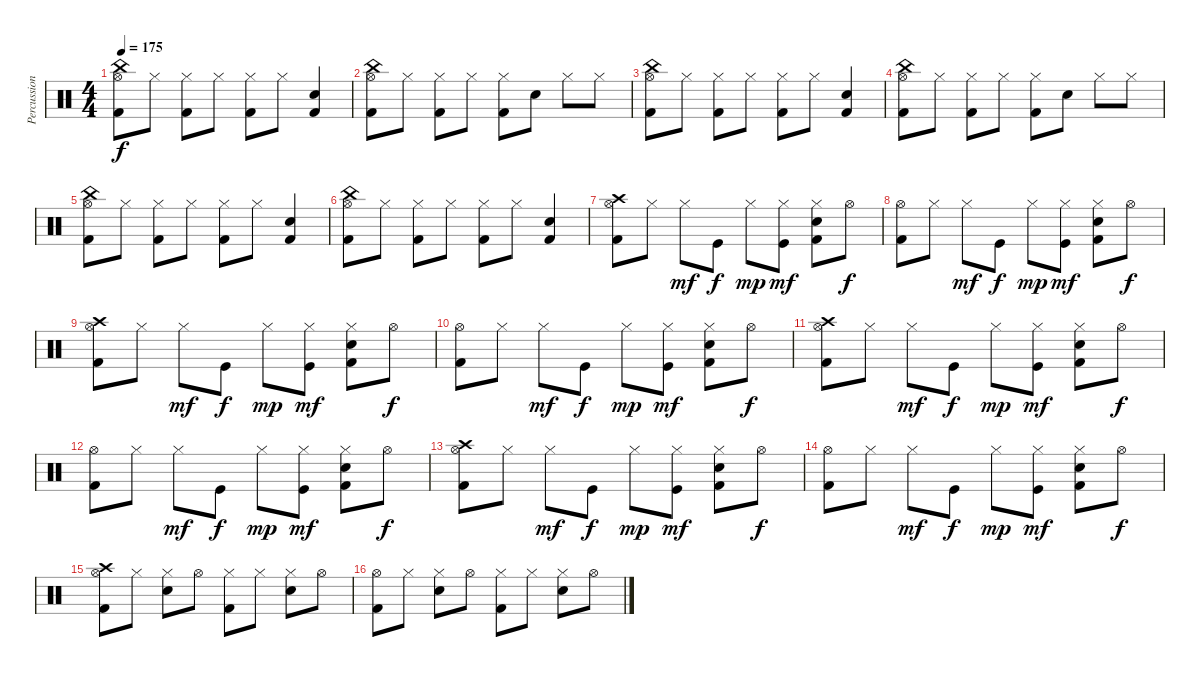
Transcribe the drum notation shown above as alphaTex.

\track ("Percussion" "Percussion") {instrument percussion}
\staff {score}
\articulation defaults
\ts (4 4)
\tempo 175
\clef neutral
\ks c
("Kick (hit) 2" "Hi-Hat (open)" "China (hit)").8{dy f} "Hi-Hat (closed)".8 ("Kick (hit) 2" "Hi-Hat (closed)").8 "Hi-Hat (closed)".8 ("Kick (hit) 2" "Hi-Hat (closed)").8 "Hi-Hat (closed)".8 ("Kick (hit) 2" "Snare (hit) 2").4 |
("Kick (hit) 2" "Hi-Hat (open)" "China (hit)").8 "Hi-Hat (closed)".8 ("Kick (hit) 2" "Hi-Hat (closed)").8 "Hi-Hat (closed)".8 ("Kick (hit) 2" "Hi-Hat (closed)").8 "Snare (hit) 2".8 "Hi-Hat (closed)".8 "Hi-Hat (closed)".8 |
("Kick (hit) 2" "Hi-Hat (open)" "China (hit)").8 "Hi-Hat (closed)".8 ("Kick (hit) 2" "Hi-Hat (closed)").8 "Hi-Hat (closed)".8 ("Kick (hit) 2" "Hi-Hat (closed)").8 "Hi-Hat (closed)".8 ("Kick (hit) 2" "Snare (hit) 2").4 |
("Kick (hit) 2" "Hi-Hat (open)" "China (hit)").8 "Hi-Hat (closed)".8 ("Kick (hit) 2" "Hi-Hat (closed)").8 "Hi-Hat (closed)".8 ("Kick (hit) 2" "Hi-Hat (closed)").8 "Snare (hit) 2".8 "Hi-Hat (closed)".8 "Hi-Hat (closed)".8 |
("Kick (hit) 2" "Hi-Hat (open)" "China (hit)").8 "Hi-Hat (closed)".8 ("Kick (hit) 2" "Hi-Hat (closed)").8 "Hi-Hat (closed)".8 ("Kick (hit) 2" "Hi-Hat (closed)").8 "Hi-Hat (closed)".8 ("Kick (hit) 2" "Snare (hit) 2").4 |
("Kick (hit) 2" "Hi-Hat (open)" "China (hit)").8 "Hi-Hat (closed)".8 ("Kick (hit) 2" "Hi-Hat (closed)").8 "Hi-Hat (closed)".8 ("Kick (hit) 2" "Hi-Hat (closed)").8 "Hi-Hat (closed)".8 ("Kick (hit) 2" "Snare (hit) 2").4 |
("Kick (hit) 2" "Hi-Hat (open)" "Crash high (hit)").8 "Hi-Hat (closed)".8 "Hi-Hat (closed)".8{dy mf} "Kick (hit)".8{dy f} "Hi-Hat (closed)".8{dy mp} ("Kick (hit)" "Hi-Hat (closed)").8{dy mf} ("Kick (hit) 2" "Electric Snare (hit)" "Hi-Hat (closed)").8 "Hi-Hat (open)".8{dy f} |
("Kick (hit) 2" "Hi-Hat (open)").8 "Hi-Hat (closed)".8 "Hi-Hat (closed)".8{dy mf} "Kick (hit)".8{dy f} "Hi-Hat (closed)".8{dy mp} ("Kick (hit)" "Hi-Hat (closed)").8{dy mf} ("Kick (hit) 2" "Electric Snare (hit)" "Hi-Hat (closed)").8 "Hi-Hat (open)".8{dy f} |
("Kick (hit) 2" "Hi-Hat (open)" "Crash high (hit)").8 "Hi-Hat (closed)".8 "Hi-Hat (closed)".8{dy mf} "Kick (hit)".8{dy f} "Hi-Hat (closed)".8{dy mp} ("Kick (hit)" "Hi-Hat (closed)").8{dy mf} ("Kick (hit) 2" "Electric Snare (hit)" "Hi-Hat (closed)").8 "Hi-Hat (open)".8{dy f} |
("Kick (hit) 2" "Hi-Hat (open)").8 "Hi-Hat (closed)".8 "Hi-Hat (closed)".8{dy mf} "Kick (hit)".8{dy f} "Hi-Hat (closed)".8{dy mp} ("Kick (hit)" "Hi-Hat (closed)").8{dy mf} ("Kick (hit) 2" "Electric Snare (hit)" "Hi-Hat (closed)").8 "Hi-Hat (open)".8{dy f} |
("Kick (hit) 2" "Hi-Hat (open)" "Crash high (hit)").8 "Hi-Hat (closed)".8 "Hi-Hat (closed)".8{dy mf} "Kick (hit)".8{dy f} "Hi-Hat (closed)".8{dy mp} ("Kick (hit)" "Hi-Hat (closed)").8{dy mf} ("Kick (hit) 2" "Electric Snare (hit)" "Hi-Hat (closed)").8 "Hi-Hat (open)".8{dy f} |
("Kick (hit) 2" "Hi-Hat (open)").8 "Hi-Hat (closed)".8 "Hi-Hat (closed)".8{dy mf} "Kick (hit)".8{dy f} "Hi-Hat (closed)".8{dy mp} ("Kick (hit)" "Hi-Hat (closed)").8{dy mf} ("Kick (hit) 2" "Electric Snare (hit)" "Hi-Hat (closed)").8 "Hi-Hat (open)".8{dy f} |
("Kick (hit) 2" "Hi-Hat (open)" "Crash high (hit)").8 "Hi-Hat (closed)".8 "Hi-Hat (closed)".8{dy mf} "Kick (hit)".8{dy f} "Hi-Hat (closed)".8{dy mp} ("Kick (hit)" "Hi-Hat (closed)").8{dy mf} ("Kick (hit) 2" "Electric Snare (hit)" "Hi-Hat (closed)").8 "Hi-Hat (open)".8{dy f} |
("Kick (hit) 2" "Hi-Hat (open)").8 "Hi-Hat (closed)".8 "Hi-Hat (closed)".8{dy mf} "Kick (hit)".8{dy f} "Hi-Hat (closed)".8{dy mp} ("Kick (hit)" "Hi-Hat (closed)").8{dy mf} ("Kick (hit) 2" "Electric Snare (hit)" "Hi-Hat (closed)").8 "Hi-Hat (open)".8{dy f} |
("Kick (hit) 2" "Hi-Hat (open)" "Crash high (hit)").8 "Hi-Hat (closed)".8 ("Snare (hit) 2" "Hi-Hat (closed)").8 "Hi-Hat (open)".8 ("Kick (hit) 2" "Hi-Hat (closed)").8 "Hi-Hat (closed)".8 ("Snare (hit) 2" "Hi-Hat (closed)").8 "Hi-Hat (open)".8 |
("Kick (hit) 2" "Hi-Hat (open)").8 "Hi-Hat (closed)".8 ("Snare (hit) 2" "Hi-Hat (closed)").8 "Hi-Hat (open)".8 ("Kick (hit) 2" "Hi-Hat (closed)").8 "Hi-Hat (closed)".8 ("Snare (hit) 2" "Hi-Hat (closed)").8 "Hi-Hat (open)".8
